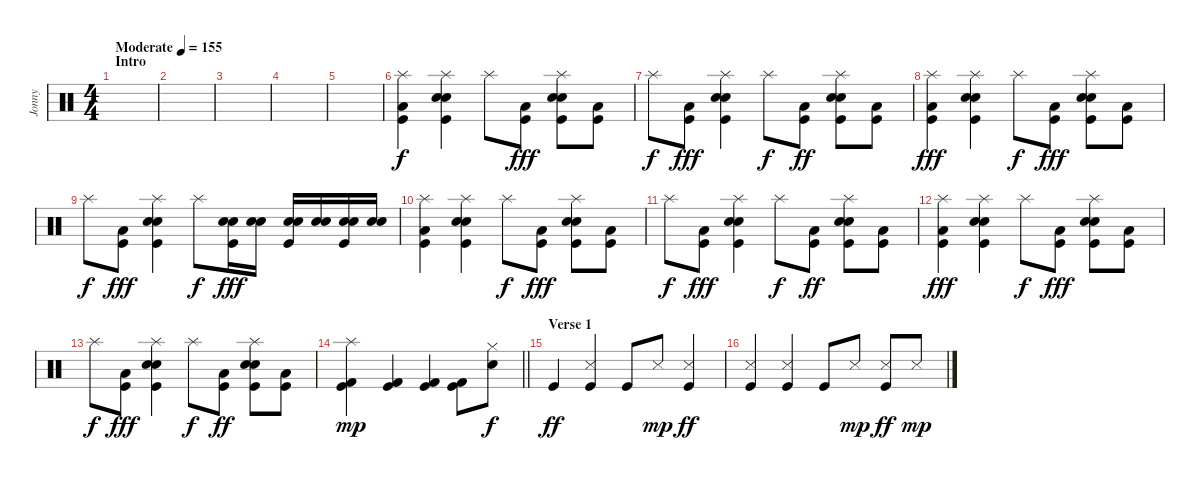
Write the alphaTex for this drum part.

\track ("Jonny" "Jonny") {instrument percussion}
\staff {score}
\articulation defaults
\ts (4 4)
\section ("" "Intro")
\tempo (155 "Moderate")
\clef neutral
\ks c
|
|
|
|
|
("Splash (hit)" "Low Floor Tom (hit)" "Kick (hit)").4 ("Splash (hit)" "Electric Snare (hit)" "Electric Snare (hit)" "Kick (hit)").4 "Splash (hit)".8{dy f} ("Low Floor Tom (hit)" "Kick (hit)").8{dy fff} ("Splash (hit)" "Electric Snare (hit)" "Electric Snare (hit)" "Kick (hit)").8 ("Low Floor Tom (hit)" "Kick (hit)").8 |
"Splash (hit)".8{dy f} ("Low Floor Tom (hit)" "Kick (hit)").8{dy fff} ("Splash (hit)" "Electric Snare (hit)" "Electric Snare (hit)" "Kick (hit)").4 "Splash (hit)".8{dy f} ("Low Floor Tom (hit)" "Kick (hit)").8{dy ff} ("Splash (hit)" "Electric Snare (hit)" "Electric Snare (hit)" "Kick (hit)").8 ("Low Floor Tom (hit)" "Kick (hit)").8 |
("Splash (hit)" "Low Floor Tom (hit)" "Kick (hit)").4{dy fff} ("Splash (hit)" "Electric Snare (hit)" "Electric Snare (hit)" "Kick (hit)").4 "Splash (hit)".8{dy f} ("Low Floor Tom (hit)" "Kick (hit)").8{dy fff} ("Splash (hit)" "Electric Snare (hit)" "Electric Snare (hit)" "Kick (hit)").8 ("Low Floor Tom (hit)" "Kick (hit)").8 |
"Splash (hit)".8{dy f} ("Low Floor Tom (hit)" "Kick (hit)").8{dy fff} ("Splash (hit)" "Electric Snare (hit)" "Electric Snare (hit)" "Kick (hit)").4 "Splash (hit)".8{dy f} ("Electric Snare (hit)" "Electric Snare (hit)" "Kick (hit)").16{dy fff} ("Electric Snare (hit)" "Electric Snare (hit)").16 ("Electric Snare (hit)" "Electric Snare (hit)" "Kick (hit)").16 ("Electric Snare (hit)" "Electric Snare (hit)").16 ("Electric Snare (hit)" "Electric Snare (hit)" "Kick (hit)").16 ("Electric Snare (hit)" "Electric Snare (hit)").16 |
("Splash (hit)" "Low Floor Tom (hit)" "Kick (hit)").4 ("Splash (hit)" "Electric Snare (hit)" "Electric Snare (hit)" "Kick (hit)").4 "Splash (hit)".8{dy f} ("Low Floor Tom (hit)" "Kick (hit)").8{dy fff} ("Splash (hit)" "Electric Snare (hit)" "Electric Snare (hit)" "Kick (hit)").8 ("Low Floor Tom (hit)" "Kick (hit)").8 |
"Splash (hit)".8{dy f} ("Low Floor Tom (hit)" "Kick (hit)").8{dy fff} ("Splash (hit)" "Electric Snare (hit)" "Electric Snare (hit)" "Kick (hit)").4 "Splash (hit)".8{dy f} ("Low Floor Tom (hit)" "Kick (hit)").8{dy ff} ("Splash (hit)" "Electric Snare (hit)" "Electric Snare (hit)" "Kick (hit)").8 ("Low Floor Tom (hit)" "Kick (hit)").8 |
("Splash (hit)" "Low Floor Tom (hit)" "Kick (hit)").4{dy fff} ("Splash (hit)" "Electric Snare (hit)" "Electric Snare (hit)" "Kick (hit)").4 "Splash (hit)".8{dy f} ("Low Floor Tom (hit)" "Kick (hit)").8{dy fff} ("Splash (hit)" "Electric Snare (hit)" "Electric Snare (hit)" "Kick (hit)").8 ("Low Floor Tom (hit)" "Kick (hit)").8 |
"Splash (hit)".8{dy f} ("Low Floor Tom (hit)" "Kick (hit)").8{dy fff} ("Splash (hit)" "Electric Snare (hit)" "Electric Snare (hit)" "Kick (hit)").4 "Splash (hit)".8{dy f} ("Low Floor Tom (hit)" "Kick (hit)").8{dy ff} ("Splash (hit)" "Electric Snare (hit)" "Electric Snare (hit)" "Kick (hit)").8 ("Low Floor Tom (hit)" "Kick (hit)").8 |
\barLineRight lightlight
("Splash (hit)" "Kick (hit)" "Kick (hit) 2").4{dy mp} ("Kick (hit)" "Kick (hit) 2").4 ("Kick (hit)" "Kick (hit) 2").4 ("Kick (hit)" "Kick (hit) 2").8 ("Hi-Hat (closed)" "Electric Snare (hit)").8{dy f} |
\section ("" "Verse 1")
"Kick (hit)".4{dy ff} ("Metronome (hit)" "Kick (hit)").4 "Kick (hit)".8 "Metronome (hit)".8{dy mp} ("Metronome (hit)" "Kick (hit)").4{dy ff} |
("Metronome (hit)" "Kick (hit)").4 ("Metronome (hit)" "Kick (hit)").4 "Kick (hit)".8 "Metronome (hit)".8{dy mp} ("Metronome (hit)" "Kick (hit)").8{dy ff} "Metronome (hit)".8{dy mp}
